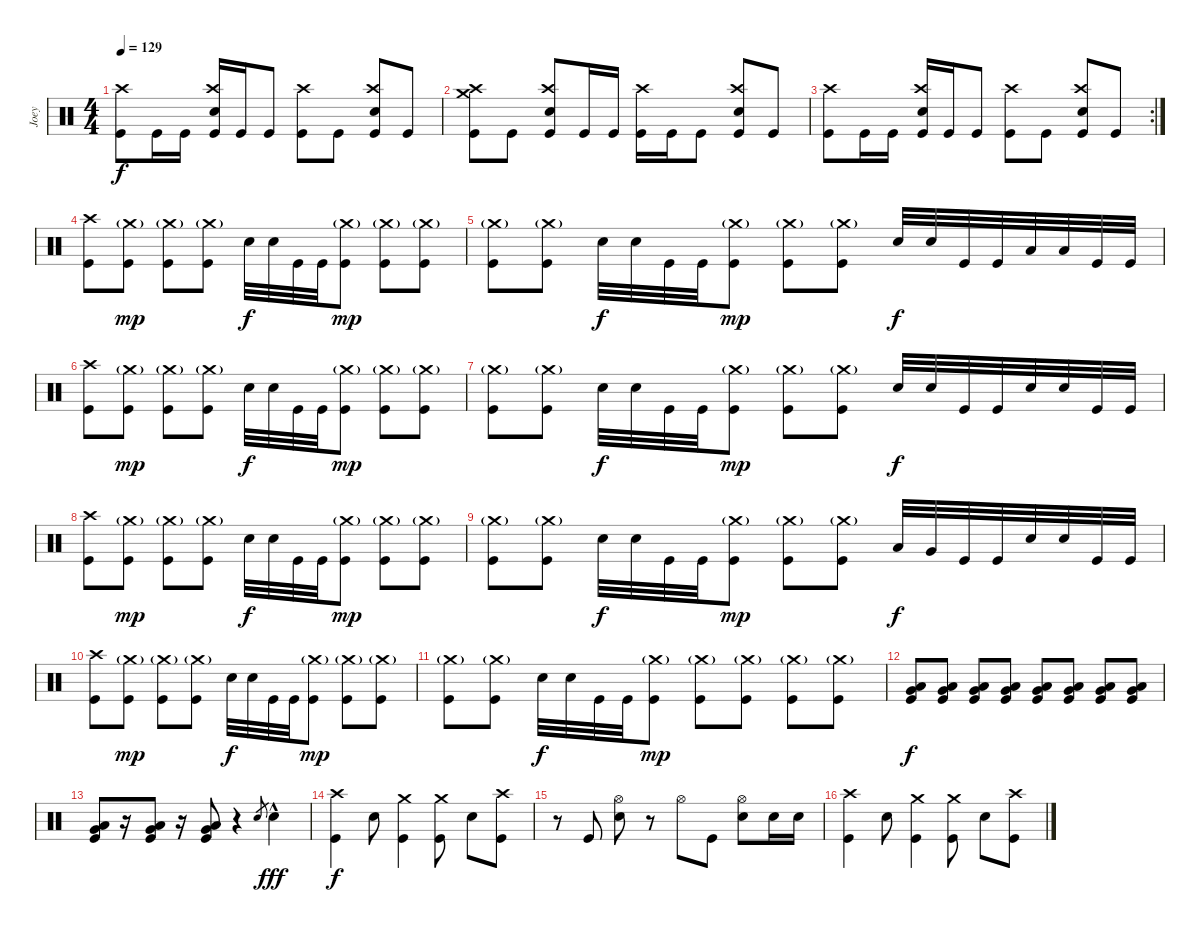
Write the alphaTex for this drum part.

\track ("Joey" "Joey") {instrument percussion}
\staff {score}
\articulation defaults
\ts (4 4)
\tempo 129
\clef neutral
\ks c
("Kick (hit)" "Crash high (hit)").8{dy f} "Kick (hit)".16 "Kick (hit)".16 ("Kick (hit)" "Crash high (hit)" "Snare (hit) 2").16 "Kick (hit)".16 "Kick (hit)".8 ("Kick (hit)" "Crash high (hit)").8 "Kick (hit)".8 ("Kick (hit)" "Crash high (hit)" "Snare (hit) 2").8 "Kick (hit)".8 |
("Crash high (hit)" "Kick (hit)" "Crash medium (hit)").8 "Kick (hit)".8 ("Kick (hit)" "Crash high (hit)" "Snare (hit) 2").8 "Kick (hit)".16 "Kick (hit)".16 ("Kick (hit)" "Crash high (hit)").16 "Kick (hit)".16 "Kick (hit)".8 ("Kick (hit)" "Crash high (hit)" "Snare (hit) 2").8 "Kick (hit)".8 |
\rc 2
("Kick (hit)" "Crash high (hit)").8 "Kick (hit)".16 "Kick (hit)".16 ("Kick (hit)" "Crash high (hit)" "Snare (hit) 2").16 "Kick (hit)".16 "Kick (hit)".8 ("Kick (hit)" "Crash high (hit)").8 "Kick (hit)".8 ("Kick (hit)" "Crash high (hit)" "Snare (hit) 2").8 "Kick (hit)".8 |
("Crash high (hit)" "Kick (hit)").8 ("Kick (hit)" "Crash medium (hit)"{g}).8{dy mp} ("Kick (hit)" "Crash medium (hit)"{g}).8 ("Kick (hit)" "Crash medium (hit)"{g}).8 "Snare (hit) 2".32{dy f} "Snare (hit) 2".32 "Kick (hit)".32 "Kick (hit)".32 ("Kick (hit)" "Crash medium (hit)"{g}).8{dy mp} ("Kick (hit)" "Crash medium (hit)"{g}).8 ("Kick (hit)" "Crash medium (hit)"{g}).8 |
("Kick (hit)" "Crash medium (hit)"{g}).8 ("Kick (hit)" "Crash medium (hit)"{g}).8 "Snare (hit) 2".32{dy f} "Snare (hit) 2".32 "Kick (hit)".32 "Kick (hit)".32 ("Kick (hit)" "Crash medium (hit)"{g}).8{dy mp} ("Kick (hit)" "Crash medium (hit)"{g}).8 ("Kick (hit)" "Crash medium (hit)"{g}).8 "Snare (hit) 2".32{dy f} "Snare (hit) 2".32 "Kick (hit)".32 "Kick (hit)".32 "Low Floor Tom (hit)".32 "Low Floor Tom (hit)".32 "Kick (hit)".32 "Kick (hit)".32 |
("Crash high (hit)" "Kick (hit)").8 ("Kick (hit)" "Crash medium (hit)"{g}).8{dy mp} ("Kick (hit)" "Crash medium (hit)"{g}).8 ("Kick (hit)" "Crash medium (hit)"{g}).8 "Snare (hit) 2".32{dy f} "Snare (hit) 2".32 "Kick (hit)".32 "Kick (hit)".32 ("Kick (hit)" "Crash medium (hit)"{g}).8{dy mp} ("Kick (hit)" "Crash medium (hit)"{g}).8 ("Kick (hit)" "Crash medium (hit)"{g}).8 |
("Kick (hit)" "Crash medium (hit)"{g}).8 ("Kick (hit)" "Crash medium (hit)"{g}).8 "Snare (hit) 2".32{dy f} "Snare (hit) 2".32 "Kick (hit)".32 "Kick (hit)".32 ("Kick (hit)" "Crash medium (hit)"{g}).8{dy mp} ("Kick (hit)" "Crash medium (hit)"{g}).8 ("Kick (hit)" "Crash medium (hit)"{g}).8 "Snare (hit) 2".32{dy f} "Snare (hit) 2".32 "Kick (hit)".32 "Kick (hit)".32 "Snare (hit) 2".32 "Snare (hit) 2".32 "Kick (hit)".32 "Kick (hit)".32 |
("Crash high (hit)" "Kick (hit)").8 ("Kick (hit)" "Crash medium (hit)"{g}).8{dy mp} ("Kick (hit)" "Crash medium (hit)"{g}).8 ("Kick (hit)" "Crash medium (hit)"{g}).8 "Snare (hit) 2".32{dy f} "Snare (hit) 2".32 "Kick (hit)".32 "Kick (hit)".32 ("Kick (hit)" "Crash medium (hit)"{g}).8{dy mp} ("Kick (hit)" "Crash medium (hit)"{g}).8 ("Kick (hit)" "Crash medium (hit)"{g}).8 |
("Kick (hit)" "Crash medium (hit)"{g}).8 ("Kick (hit)" "Crash medium (hit)"{g}).8 "Snare (hit) 2".32{dy f} "Snare (hit) 2".32 "Kick (hit)".32 "Kick (hit)".32 ("Kick (hit)" "Crash medium (hit)"{g}).8{dy mp} ("Kick (hit)" "Crash medium (hit)"{g}).8 ("Kick (hit)" "Crash medium (hit)"{g}).8 "Low Floor Tom (hit)".32{dy f} "Very Low Tom (hit)".32 "Kick (hit)".32 "Kick (hit)".32 "Snare (hit) 2".32 "Snare (hit) 2".32 "Kick (hit)".32 "Kick (hit)".32 |
("Crash high (hit)" "Kick (hit)").8 ("Kick (hit)" "Crash medium (hit)"{g}).8{dy mp} ("Kick (hit)" "Crash medium (hit)"{g}).8 ("Kick (hit)" "Crash medium (hit)"{g}).8 "Snare (hit) 2".32{dy f} "Snare (hit) 2".32 "Kick (hit)".32 "Kick (hit)".32 ("Kick (hit)" "Crash medium (hit)"{g}).8{dy mp} ("Kick (hit)" "Crash medium (hit)"{g}).8 ("Kick (hit)" "Crash medium (hit)"{g}).8 |
("Kick (hit)" "Crash medium (hit)"{g}).8 ("Kick (hit)" "Crash medium (hit)"{g}).8 "Snare (hit) 2".32{dy f} "Snare (hit) 2".32 "Kick (hit)".32 "Kick (hit)".32 ("Kick (hit)" "Crash medium (hit)"{g}).8{dy mp} ("Kick (hit)" "Crash medium (hit)"{g}).8 ("Kick (hit)" "Crash medium (hit)"{g}).8 ("Kick (hit)" "Crash medium (hit)"{g}).8 ("Kick (hit)" "Crash medium (hit)"{g}).8 |
("Low Floor Tom (hit)" "Very Low Tom (hit)" "Kick (hit)").8{dy f} ("Low Floor Tom (hit)" "Very Low Tom (hit)" "Kick (hit)").8 ("Low Floor Tom (hit)" "Very Low Tom (hit)" "Kick (hit)").8 ("Low Floor Tom (hit)" "Very Low Tom (hit)" "Kick (hit)").8 ("Low Floor Tom (hit)" "Very Low Tom (hit)" "Kick (hit)").8 ("Low Floor Tom (hit)" "Very Low Tom (hit)" "Kick (hit)").8 ("Low Floor Tom (hit)" "Very Low Tom (hit)" "Kick (hit)").8 ("Low Floor Tom (hit)" "Very Low Tom (hit)" "Kick (hit)").8 |
("Very Low Tom (hit)" "Low Floor Tom (hit)" "Kick (hit)").8 r.16 ("Kick (hit)" "Very Low Tom (hit)" "Low Floor Tom (hit)").8 r.16 ("Kick (hit)" "Low Floor Tom (hit)" "Very Low Tom (hit)").8 r.4 "Snare (hit) 2".8{gr} "Snare (hit) 2"{hac}.4{dy fff} |
("Kick (hit)" "Crash high (hit)").4{dy f} "Snare (hit) 2".8 ("Kick (hit)" "Crash medium (hit)").4 ("Kick (hit)" "Crash medium (hit)").8 "Snare (hit) 2".8 ("Kick (hit)" "Crash high (hit)").8 |
r.8 "Kick (hit)".8 ("Snare (hit) 2" "Hi-Hat (open)").8 r.8 "Hi-Hat (open)".8 "Kick (hit)".8 ("Snare (hit) 2" "Hi-Hat (open)").8 "Snare (hit) 2".16 "Snare (hit) 2".16 |
("Kick (hit)" "Crash high (hit)").4 "Snare (hit) 2".8 ("Kick (hit)" "Crash medium (hit)").4 ("Kick (hit)" "Crash medium (hit)").8 "Snare (hit) 2".8 ("Kick (hit)" "Crash high (hit)").8
